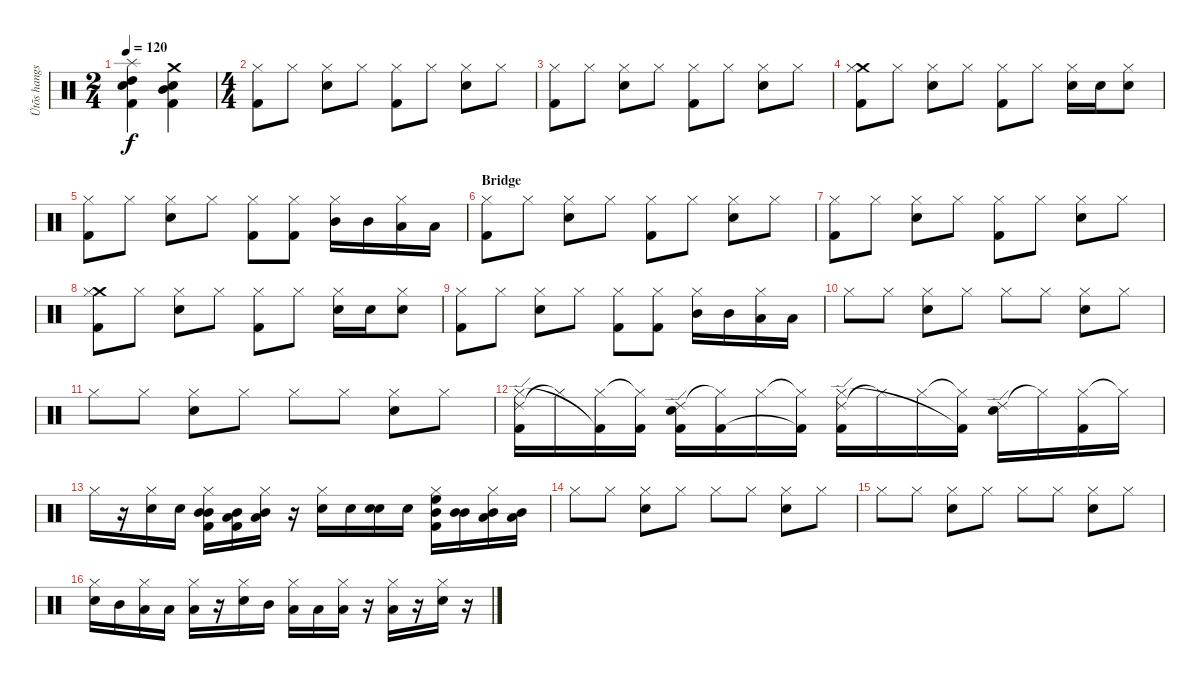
\track ("Ütõs hangszer" "Ütõs hangs") {instrument percussion}
\staff {score}
\articulation defaults
\ts (2 4)
\tempo 120
\clef neutral
\ks c
("Splash (hit)" "High Tom (hit)" "Snare (hit) 2" "Kick (hit) 2").4{dy f} ("Crash medium (hit)" "Mid Tom (hit)" "Snare (hit) 2" "Kick (hit) 2").4 |
\ts (4 4)
("Hi-Hat (closed)" "Kick (hit) 2").8 "Hi-Hat (closed)".8 ("Hi-Hat (closed)" "Snare (hit) 2").8 "Hi-Hat (closed)".8 ("Hi-Hat (closed)" "Kick (hit) 2").8 "Hi-Hat (closed)".8 ("Hi-Hat (closed)" "Snare (hit) 2").8 "Hi-Hat (closed)".8 |
("Hi-Hat (closed)" "Kick (hit) 2").8 "Hi-Hat (closed)".8 ("Hi-Hat (closed)" "Snare (hit) 2").8 "Hi-Hat (closed)".8 ("Hi-Hat (closed)" "Kick (hit) 2").8 "Hi-Hat (closed)".8 ("Hi-Hat (closed)" "Snare (hit) 2").8 "Hi-Hat (closed)".8 |
("Crash medium (hit)" "Hi-Hat (closed)" "Kick (hit) 2").8 "Hi-Hat (closed)".8 ("Hi-Hat (closed)" "Snare (hit) 2").8 "Hi-Hat (closed)".8 ("Hi-Hat (closed)" "Kick (hit) 2").8 "Hi-Hat (closed)".8 ("Hi-Hat (closed)" "Snare (hit) 2").16 "Snare (hit) 2".16 ("Hi-Hat (closed)" "Snare (hit) 2").8 |
("Hi-Hat (closed)" "Kick (hit) 2").8 "Hi-Hat (closed)".8 ("Hi-Hat (closed)" "Snare (hit) 2").8 "Hi-Hat (closed)".8 ("Hi-Hat (closed)" "Kick (hit) 2").8 ("Hi-Hat (closed)" "Kick (hit) 2").8 ("Hi-Hat (closed)" "Mid Tom (hit)").16 "Mid Tom (hit)".16 ("Hi-Hat (closed)" "Low Floor Tom (hit)").16 "Low Floor Tom (hit)".16 |
\section ("" "Bridge")
("Hi-Hat (closed)" "Kick (hit) 2").8 "Hi-Hat (closed)".8 ("Hi-Hat (closed)" "Snare (hit) 2").8 "Hi-Hat (closed)".8 ("Hi-Hat (closed)" "Kick (hit) 2").8 "Hi-Hat (closed)".8 ("Hi-Hat (closed)" "Snare (hit) 2").8 "Hi-Hat (closed)".8 |
("Hi-Hat (closed)" "Kick (hit) 2").8 "Hi-Hat (closed)".8 ("Hi-Hat (closed)" "Snare (hit) 2").8 "Hi-Hat (closed)".8 ("Hi-Hat (closed)" "Kick (hit) 2").8 "Hi-Hat (closed)".8 ("Hi-Hat (closed)" "Snare (hit) 2").8 "Hi-Hat (closed)".8 |
("Crash medium (hit)" "Hi-Hat (closed)" "Kick (hit) 2").8 "Hi-Hat (closed)".8 ("Hi-Hat (closed)" "Snare (hit) 2").8 "Hi-Hat (closed)".8 ("Hi-Hat (closed)" "Kick (hit) 2").8 "Hi-Hat (closed)".8 ("Hi-Hat (closed)" "Snare (hit) 2").16 "Snare (hit) 2".16 ("Hi-Hat (closed)" "Snare (hit) 2").8 |
("Hi-Hat (closed)" "Kick (hit) 2").8 "Hi-Hat (closed)".8 ("Hi-Hat (closed)" "Snare (hit) 2").8 "Hi-Hat (closed)".8 ("Hi-Hat (closed)" "Kick (hit) 2").8 ("Hi-Hat (closed)" "Kick (hit) 2").8 ("Hi-Hat (closed)" "Mid Tom (hit)").16 "Mid Tom (hit)".16 ("Hi-Hat (closed)" "Low Floor Tom (hit)").16 "Low Floor Tom (hit)".16 |
"Hi-Hat (closed)".8 "Hi-Hat (closed)".8 ("Hi-Hat (closed)" "Snare (hit) 2").8 "Hi-Hat (closed)".8 "Hi-Hat (closed)".8 "Hi-Hat (closed)".8 ("Hi-Hat (closed)" "Snare (hit) 2").8 "Hi-Hat (closed)".8 |
"Hi-Hat (closed)".8 "Hi-Hat (closed)".8 ("Hi-Hat (closed)" "Snare (hit) 2").8 "Hi-Hat (closed)".8 "Hi-Hat (closed)".8 "Hi-Hat (closed)".8 ("Hi-Hat (closed)" "Snare (hit) 2").8 "Hi-Hat (closed)".8 |
("Ride (edge) 2" "Hi-Hat (closed)" "Kick (hit) 2").16 "Hi-Hat (closed)"{t}.16 ("Hi-Hat (closed)" "Kick (hit) 2"{t}).16 ("Hi-Hat (closed)"{t} "Kick (hit) 2").16 ("Ride (edge) 2" "Snare (hit) 2" "Kick (hit) 2").16 ("Hi-Hat (closed)"{t} "Kick (hit) 2").16 "Hi-Hat (closed)".16 ("Hi-Hat (closed)"{t} "Kick (hit) 2"{t}).16 ("Ride (edge) 2" "Hi-Hat (closed)" "Kick (hit) 2").16 "Hi-Hat (closed)"{t}.16 "Hi-Hat (closed)".16 ("Hi-Hat (closed)"{t} "Kick (hit) 2"{t}).16 ("Ride (edge) 2" "Snare (hit) 2").16 "Hi-Hat (closed)"{t}.16 ("Hi-Hat (closed)" "Kick (hit) 2").16 "Hi-Hat (closed)"{t}.16 |
"Hi-Hat (closed)".16 r.16 ("Hi-Hat (closed)" "Snare (hit) 2").16 "Snare (hit) 2".16 ("Hi-Hat (closed)" "Mid Tom (hit)" "Mid Tom (hit)" "Kick (hit) 2").16 ("Low Tom (hit)" "Mid Tom (hit)" "Kick (hit) 2").16 ("Hi-Hat (closed)" "Low Floor Tom (hit)" "Mid Tom (hit)").16 r.16 ("Hi-Hat (closed)" "Snare (hit) 2").16 "Snare (hit) 2".16 ("Snare (hit)" "Snare (hit) 2").16 "Snare (hit) 2".16 ("Hi-Hat (closed)" "High Floor Tom (hit)" "Mid Tom (hit)" "Kick (hit) 2").16 ("Mid Tom (hit)" "Mid Tom (hit)").16 ("Hi-Hat (closed)" "Low Tom (hit)" "Mid Tom (hit)").16 ("Low Floor Tom (hit)" "Mid Tom (hit)").16 |
"Hi-Hat (closed)".8 "Hi-Hat (closed)".8 ("Hi-Hat (closed)" "Snare (hit) 2").8 "Hi-Hat (closed)".8 "Hi-Hat (closed)".8 "Hi-Hat (closed)".8 ("Hi-Hat (closed)" "Snare (hit) 2").8 "Hi-Hat (closed)".8 |
"Hi-Hat (closed)".8 "Hi-Hat (closed)".8 ("Hi-Hat (closed)" "Snare (hit) 2").8 "Hi-Hat (closed)".8 "Hi-Hat (closed)".8 "Hi-Hat (closed)".8 ("Hi-Hat (closed)" "Snare (hit) 2").8 "Hi-Hat (closed)".8 |
("Hi-Hat (closed)" "Snare (hit) 2").16 "Mid Tom (hit)".16 ("Hi-Hat (closed)" "Low Tom (hit)").16 "Low Floor Tom (hit)".16 ("Hi-Hat (closed)" "Low Floor Tom (hit)").16 r.16 ("Hi-Hat (closed)" "Snare (hit) 2").16 "Mid Tom (hit)".16 ("Hi-Hat (closed)" "Low Tom (hit)").16 "Low Floor Tom (hit)".16 ("Hi-Hat (closed)" "Low Floor Tom (hit)").16 r.16 ("Hi-Hat (closed)" "Low Tom (hit)").16 r.16 ("Hi-Hat (closed)" "Snare (hit) 2").16 r.16
